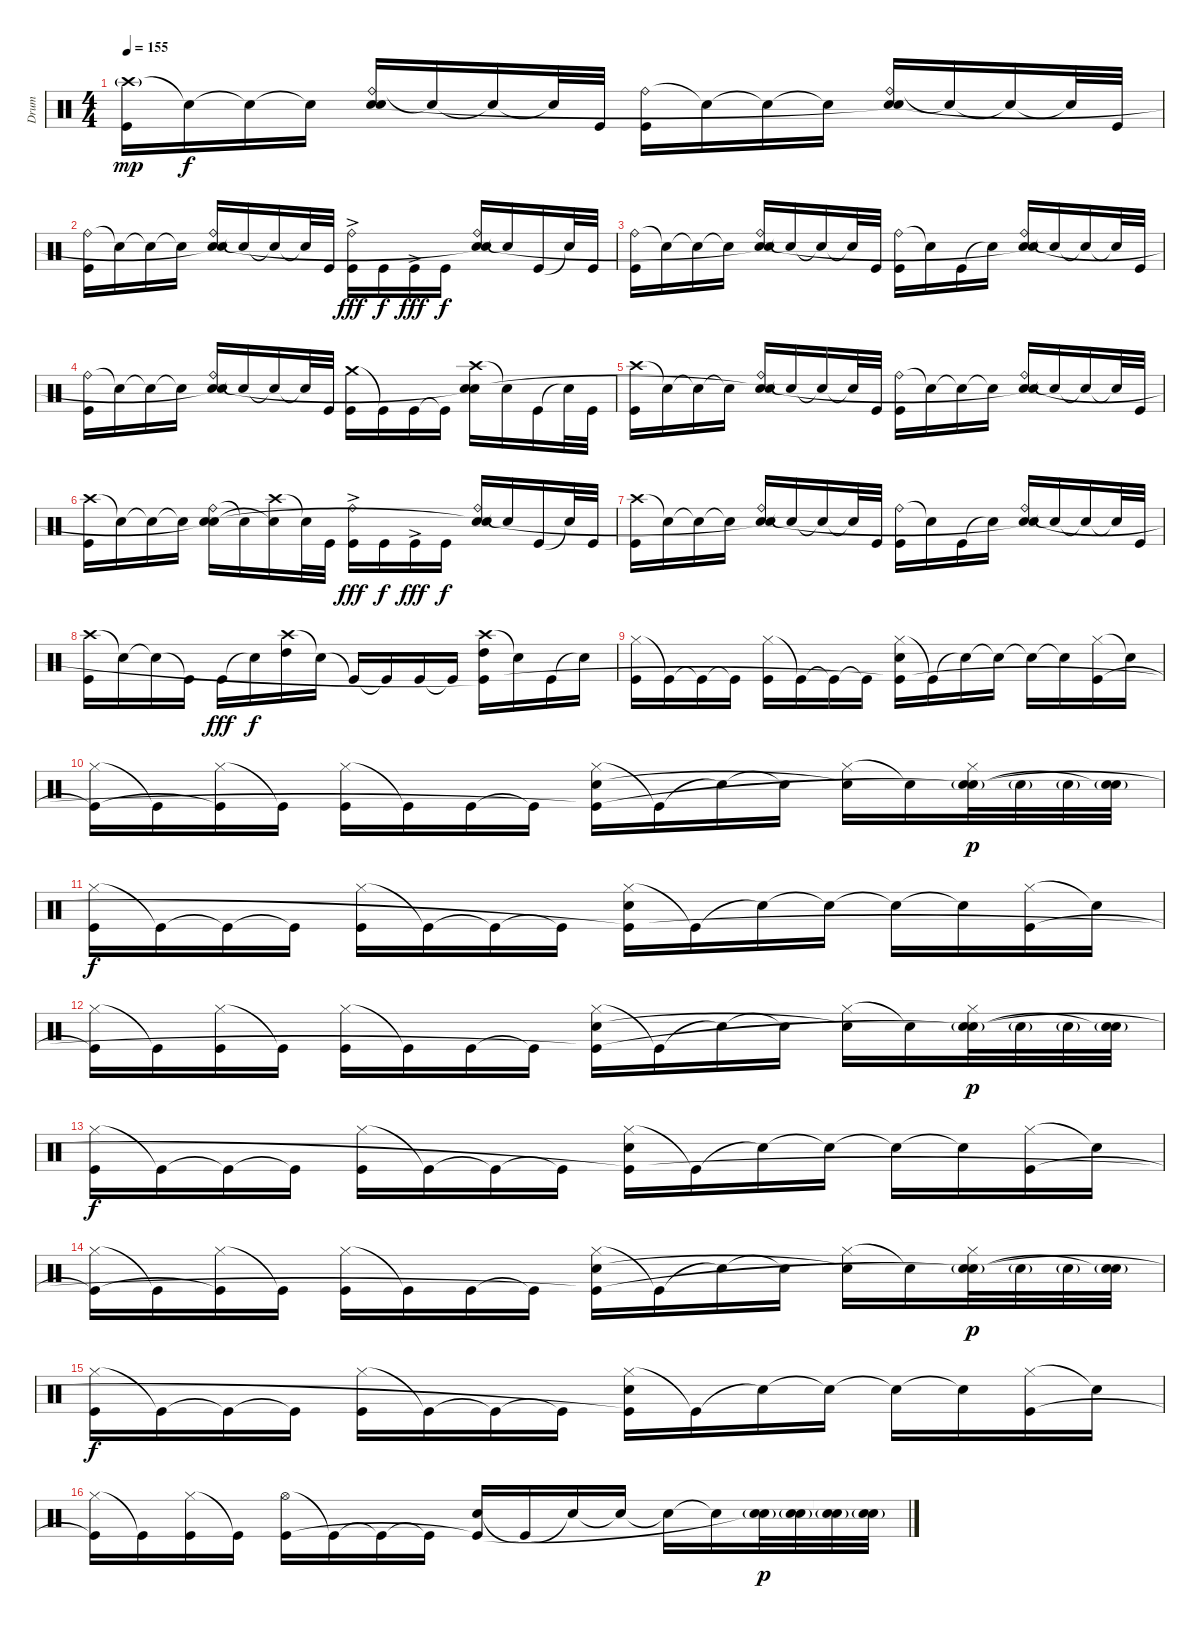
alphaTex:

\track ("Drum" "Drum") {instrument percussion}
\staff {score}
\articulation defaults
\ts (4 4)
\tempo 155
\clef neutral
\ks c
("Crash high (hit)"{g} "Kick (hit)").16{dy mp} "Snare (hit)"{t}.16{dy f} "Snare (hit)"{t}.16 "Snare (hit)"{t}.16 ("Ride (bell)" "Electric Snare (hit)" "Snare (hit)"{t}).16 "Snare (hit)"{t}.16 "Snare (hit)"{t}.16 "Snare (hit)"{t}.32 "Kick (hit)".32 ("Ride (bell)" "Kick (hit)").16 "Snare (hit)"{t}.16 "Snare (hit)"{t}.16 "Snare (hit)"{t}.16 ("Ride (bell)" "Electric Snare (hit)" "Snare (hit)"{t}).16 "Snare (hit)"{t}.16 "Snare (hit)"{t}.16 "Snare (hit)"{t}.32 "Kick (hit)".32 |
("Ride (bell)" "Kick (hit)").16 "Snare (hit)"{t}.16 "Snare (hit)"{t}.16 "Snare (hit)"{t}.16 ("Ride (bell)" "Electric Snare (hit)" "Snare (hit)"{t}).16 "Snare (hit)"{t}.16 "Snare (hit)"{t}.16 "Snare (hit)"{t}.32 "Kick (hit)".32 ("Ride (bell)" "Kick (hit)"{ac}).16{dy fff} "Kick (hit)".16{dy f} "Kick (hit)"{ac}.16{dy fff} "Kick (hit)".16{dy f} ("Ride (bell)" "Electric Snare (hit)" "Snare (hit)"{t}).16 "Snare (hit)"{t}.16 "Kick (hit)".16 "Snare (hit)"{t}.32 "Kick (hit)".32 |
("Ride (bell)" "Kick (hit)").16 "Snare (hit)"{t}.16 "Snare (hit)"{t}.16 "Snare (hit)"{t}.16 ("Ride (bell)" "Electric Snare (hit)" "Snare (hit)"{t}).16 "Snare (hit)"{t}.16 "Snare (hit)"{t}.16 "Snare (hit)"{t}.32 "Kick (hit)".32 ("Ride (bell)" "Kick (hit)").16 "Snare (hit)"{t}.16 "Kick (hit)".16 "Snare (hit)"{t}.16 ("Ride (bell)" "Electric Snare (hit)" "Snare (hit)"{t}).16 "Snare (hit)"{t}.16 "Snare (hit)"{t}.16 "Snare (hit)"{t}.32 "Kick (hit)".32 |
("Ride (bell)" "Kick (hit)").16 "Snare (hit)"{t}.16 "Snare (hit)"{t}.16 "Snare (hit)"{t}.16 ("Ride (bell)" "Electric Snare (hit)" "Snare (hit)"{t}).16 "Snare (hit)"{t}.16 "Snare (hit)"{t}.16 "Snare (hit)"{t}.32 "Kick (hit)".32 ("Crash medium (hit)" "Kick (hit)").16 "Kick (hit)"{t}.16 "Kick (hit)".16 "Kick (hit)"{t}.16 ("Crash high (hit)" "Electric Snare (hit)" "Snare (hit)"{t}).16 "Snare (hit)"{t}.16 "Kick (hit)".16 "Snare (hit)"{t}.32 "Kick (hit)".32 |
("Crash high (hit)" "Kick (hit)").16 "Snare (hit)"{t}.16 "Snare (hit)"{t}.16 "Snare (hit)"{t}.16 ("Ride (bell)" "Electric Snare (hit)" "Snare (hit)"{t}).16 "Snare (hit)"{t}.16 "Snare (hit)"{t}.16 "Snare (hit)"{t}.32 "Kick (hit)".32 ("Ride (bell)" "Kick (hit)").16 "Snare (hit)"{t}.16 "Snare (hit)"{t}.16 "Snare (hit)"{t}.16 ("Ride (bell)" "Electric Snare (hit)" "Snare (hit)"{t}).16 "Snare (hit)"{t}.16 "Snare (hit)"{t}.16 "Snare (hit)"{t}.32 "Kick (hit)".32 |
("Crash high (hit)" "Kick (hit)").16 "Snare (hit)"{t}.16 "Snare (hit)"{t}.16 "Snare (hit)"{t}.16 ("Ride (bell)" "Electric Snare (hit)" "Snare (hit)"{t}).16 "Snare (hit)"{t}.16 ("Crash high (hit)" "Snare (hit)"{t}).16 "Snare (hit)"{t}.32 "Kick (hit)".32 ("Ride (bell)" "Kick (hit)"{ac}).16{dy fff} "Kick (hit)".16{dy f} "Kick (hit)"{ac}.16{dy fff} "Kick (hit)".16{dy f} ("Ride (bell)" "Electric Snare (hit)" "Snare (hit)"{t}).16 "Snare (hit)"{t}.16 "Kick (hit)".16 "Snare (hit)"{t}.32 "Kick (hit)".32 |
("Crash high (hit)" "Kick (hit)").16 "Snare (hit)"{t}.16 "Snare (hit)"{t}.16 "Snare (hit)"{t}.16 ("Ride (bell)" "Electric Snare (hit)" "Snare (hit)"{t}).16 "Snare (hit)"{t}.16 "Snare (hit)"{t}.16 "Snare (hit)"{t}.32 "Kick (hit)".32 ("Ride (bell)" "Kick (hit)").16 "Snare (hit)"{t}.16 "Kick (hit)".16 "Snare (hit)"{t}.16 ("Ride (bell)" "Electric Snare (hit)" "Snare (hit)"{t}).16 "Snare (hit)"{t}.16 "Snare (hit)"{t}.16 "Snare (hit)"{t}.32 "Kick (hit)".32 |
("Crash high (hit)" "Kick (hit)").16 "Snare (hit)"{t}.16 "Snare (hit)"{t}.16 "Kick (hit)"{t}.16 "Kick (hit)".16{dy fff} "Snare (hit)"{t}.16{dy f} ("Crash high (hit)" "High Tom (hit)").16 "Snare (hit)"{t}.16 "Kick (hit)"{t}.16 "Kick (hit)"{t}.16 "Kick (hit)".16 "Kick (hit)"{t}.16 ("Crash high (hit)" "High Tom (hit)" "Kick (hit)"{t}).16 "Snare (hit)"{t}.16 "Kick (hit)".16 "Snare (hit)"{t}.16 |
("Hi-Hat (closed)" "Kick (hit)").16 "Kick (hit)"{t}.16 "Kick (hit)"{t}.16 "Kick (hit)"{t}.16 ("Hi-Hat (closed)" "Kick (hit)").16 "Kick (hit)"{t}.16 "Kick (hit)"{t}.16 "Kick (hit)"{t}.16 ("Hi-Hat (closed)" "Electric Snare (hit)" "Kick (hit)"{t}).16 "Kick (hit)"{t}.16 "Snare (hit)"{t}.16 "Snare (hit)"{t}.16 "Snare (hit)"{t}.16 "Snare (hit)"{t}.16 ("Hi-Hat (closed)" "Kick (hit)").16 "Snare (hit)"{t}.16 |
("Hi-Hat (closed)" "Kick (hit)"{t}).16 "Kick (hit)"{t}.16 ("Hi-Hat (closed)" "Kick (hit)"{t}).16 "Kick (hit)"{t}.16 ("Hi-Hat (closed)" "Kick (hit)").16 "Kick (hit)"{t}.16 "Kick (hit)".16 "Kick (hit)"{t}.16 ("Hi-Hat (closed)" "Electric Snare (hit)" "Kick (hit)"{t}).16 "Kick (hit)"{t}.16 "Snare (hit)"{t}.16 "Snare (hit)"{t}.16 ("Hi-Hat (closed)" "Snare (hit)"{t}).16 "Snare (hit)"{t}.16 ("Hi-Hat (closed)" "Electric Snare (hit)"{g} "Snare (hit)"{t}).32{dy p} "Electric Snare (hit)"{g}.32 "Electric Snare (hit)"{g}.32 ("Electric Snare (hit)"{g} "Snare (hit)"{t}).32 |
("Hi-Hat (closed)" "Kick (hit)").16{dy f} "Kick (hit)"{t}.16 "Kick (hit)"{t}.16 "Kick (hit)"{t}.16 ("Hi-Hat (closed)" "Kick (hit)").16 "Kick (hit)"{t}.16 "Kick (hit)"{t}.16 "Kick (hit)"{t}.16 ("Hi-Hat (closed)" "Electric Snare (hit)" "Kick (hit)"{t}).16 "Kick (hit)"{t}.16 "Snare (hit)"{t}.16 "Snare (hit)"{t}.16 "Snare (hit)"{t}.16 "Snare (hit)"{t}.16 ("Hi-Hat (closed)" "Kick (hit)").16 "Snare (hit)"{t}.16 |
("Hi-Hat (closed)" "Kick (hit)"{t}).16 "Kick (hit)"{t}.16 ("Hi-Hat (closed)" "Kick (hit)").16 "Kick (hit)"{t}.16 ("Hi-Hat (closed)" "Kick (hit)").16 "Kick (hit)"{t}.16 "Kick (hit)".16 "Kick (hit)"{t}.16 ("Hi-Hat (closed)" "Electric Snare (hit)" "Kick (hit)"{t}).16 "Kick (hit)"{t}.16 "Snare (hit)"{t}.16 "Snare (hit)"{t}.16 ("Hi-Hat (closed)" "Snare (hit)"{t}).16 "Snare (hit)"{t}.16 ("Hi-Hat (closed)" "Electric Snare (hit)"{g} "Snare (hit)"{t}).32{dy p} "Electric Snare (hit)"{g}.32 "Electric Snare (hit)"{g}.32 ("Electric Snare (hit)"{g} "Snare (hit)"{t}).32 |
("Hi-Hat (closed)" "Kick (hit)").16{dy f} "Kick (hit)"{t}.16 "Kick (hit)"{t}.16 "Kick (hit)"{t}.16 ("Hi-Hat (closed)" "Kick (hit)").16 "Kick (hit)"{t}.16 "Kick (hit)"{t}.16 "Kick (hit)"{t}.16 ("Hi-Hat (closed)" "Electric Snare (hit)" "Kick (hit)"{t}).16 "Kick (hit)"{t}.16 "Snare (hit)"{t}.16 "Snare (hit)"{t}.16 "Snare (hit)"{t}.16 "Snare (hit)"{t}.16 ("Hi-Hat (closed)" "Kick (hit)").16 "Snare (hit)"{t}.16 |
("Hi-Hat (closed)" "Kick (hit)"{t}).16 "Kick (hit)"{t}.16 ("Hi-Hat (closed)" "Kick (hit)"{t}).16 "Kick (hit)"{t}.16 ("Hi-Hat (closed)" "Kick (hit)").16 "Kick (hit)"{t}.16 "Kick (hit)".16 "Kick (hit)"{t}.16 ("Hi-Hat (closed)" "Electric Snare (hit)" "Kick (hit)"{t}).16 "Kick (hit)"{t}.16 "Snare (hit)"{t}.16 "Snare (hit)"{t}.16 ("Hi-Hat (closed)" "Snare (hit)"{t}).16 "Snare (hit)"{t}.16 ("Hi-Hat (closed)" "Electric Snare (hit)"{g} "Snare (hit)"{t}).32{dy p} "Electric Snare (hit)"{g}.32 "Electric Snare (hit)"{g}.32 ("Electric Snare (hit)"{g} "Snare (hit)"{t}).32 |
("Hi-Hat (closed)" "Kick (hit)").16{dy f} "Kick (hit)"{t}.16 "Kick (hit)"{t}.16 "Kick (hit)"{t}.16 ("Hi-Hat (closed)" "Kick (hit)").16 "Kick (hit)"{t}.16 "Kick (hit)"{t}.16 "Kick (hit)"{t}.16 ("Hi-Hat (closed)" "Electric Snare (hit)" "Kick (hit)"{t}).16 "Kick (hit)"{t}.16 "Snare (hit)"{t}.16 "Snare (hit)"{t}.16 "Snare (hit)"{t}.16 "Snare (hit)"{t}.16 ("Hi-Hat (closed)" "Kick (hit)").16 "Snare (hit)"{t}.16 |
("Hi-Hat (closed)" "Kick (hit)"{t}).16 "Kick (hit)"{t}.16 ("Hi-Hat (closed)" "Kick (hit)").16 "Kick (hit)"{t}.16 ("Hi-Hat (open)" "Kick (hit)").16 "Kick (hit)"{t}.16 "Kick (hit)"{t}.16 "Kick (hit)"{t}.16 ("Electric Snare (hit)" "Kick (hit)"{t}).16 "Kick (hit)"{t}.16 "Snare (hit)"{t}.16 "Snare (hit)"{t}.16 "Snare (hit)"{t}.16 "Snare (hit)"{t}.16 ("Electric Snare (hit)"{g} "Snare (hit)"{t}).32{dy p} ("Electric Snare (hit)"{g} "Snare (hit)"{t}).32 ("Electric Snare (hit)"{g} "Snare (hit)"{t}).32 ("Electric Snare (hit)"{g} "Snare (hit)"{t}).32
